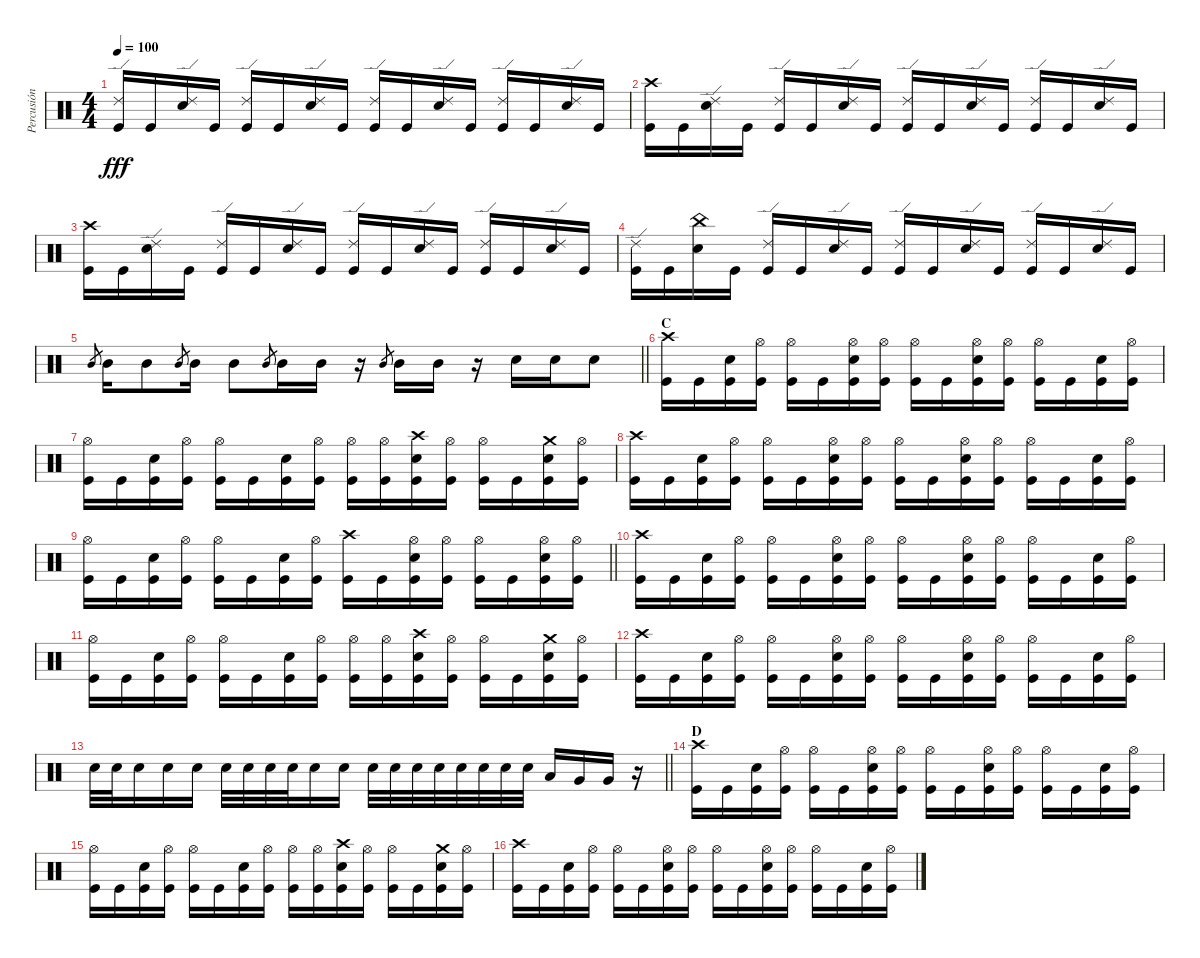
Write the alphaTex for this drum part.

\track ("Percusión" "Percusión") {instrument percussion}
\staff {score}
\articulation defaults
\ts (4 4)
\tempo 100
\clef neutral
\ks c
("Ride (edge) 2" "Kick (hit)").16{dy fff} "Kick (hit)".16 ("Ride (edge) 2" "Electric Snare (hit)").16 "Kick (hit)".16 ("Ride (edge) 2" "Kick (hit)").16 "Kick (hit)".16 ("Ride (edge) 2" "Electric Snare (hit)").16 "Kick (hit)".16 ("Ride (edge) 2" "Kick (hit)").16 "Kick (hit)".16 ("Ride (edge) 2" "Electric Snare (hit)").16 "Kick (hit)".16 ("Ride (edge) 2" "Kick (hit)").16 "Kick (hit)".16 ("Ride (edge) 2" "Electric Snare (hit)").16 "Kick (hit)".16 |
("Crash high (hit)" "Kick (hit)").16 "Kick (hit)".16 ("Ride (edge) 2" "Electric Snare (hit)").16 "Kick (hit)".16 ("Ride (edge) 2" "Kick (hit)").16 "Kick (hit)".16 ("Ride (edge) 2" "Electric Snare (hit)").16 "Kick (hit)".16 ("Ride (edge) 2" "Kick (hit)").16 "Kick (hit)".16 ("Ride (edge) 2" "Electric Snare (hit)").16 "Kick (hit)".16 ("Ride (edge) 2" "Kick (hit)").16 "Kick (hit)".16 ("Ride (edge) 2" "Electric Snare (hit)").16 "Kick (hit)".16 |
("Crash high (hit)" "Kick (hit)").16 "Kick (hit)".16 ("Ride (edge) 2" "Electric Snare (hit)").16 "Kick (hit)".16 ("Ride (edge) 2" "Kick (hit)").16 "Kick (hit)".16 ("Ride (edge) 2" "Electric Snare (hit)").16 "Kick (hit)".16 ("Ride (edge) 2" "Kick (hit)").16 "Kick (hit)".16 ("Ride (edge) 2" "Electric Snare (hit)").16 "Kick (hit)".16 ("Ride (edge) 2" "Kick (hit)").16 "Kick (hit)".16 ("Ride (edge) 2" "Electric Snare (hit)").16 "Kick (hit)".16 |
("Ride (edge) 2" "Kick (hit)").16 "Kick (hit)".16 ("China (hit)" "Electric Snare (hit)").16 "Kick (hit)".16 ("Ride (edge) 2" "Kick (hit)").16 "Kick (hit)".16 ("Ride (edge) 2" "Electric Snare (hit)").16 "Kick (hit)".16 ("Ride (edge) 2" "Kick (hit)").16 "Kick (hit)".16 ("Ride (edge) 2" "Electric Snare (hit)").16 "Kick (hit)".16 ("Ride (edge) 2" "Kick (hit)").16 "Kick (hit)".16 ("Ride (edge) 2" "Electric Snare (hit)").16 "Kick (hit)".16 |
\barLineRight lightlight "Mid Tom (hit)".8{gr} "Mid Tom (hit)".16 "Mid Tom (hit)".8 "Mid Tom (hit)".8{gr} "Mid Tom (hit)".16 "Mid Tom (hit)".8 "Mid Tom (hit)".8{gr} "Mid Tom (hit)".16 "Mid Tom (hit)".16
r.16 "Mid Tom (hit)".8{gr} "Mid Tom (hit)".16 "Mid Tom (hit)".16 r.16 "Electric Snare (hit)".16 "Electric Snare (hit)".16 "Electric Snare (hit)".8 |
\section ("" "C")
("Crash high (hit)" "Kick (hit)").16 "Kick (hit)".16 ("Electric Snare (hit)" "Kick (hit)").16 ("Hi-Hat (open)" "Kick (hit)").16 ("Hi-Hat (open)" "Kick (hit)").16 "Kick (hit)".16 ("Hi-Hat (open)" "Electric Snare (hit)" "Kick (hit)").16 ("Hi-Hat (open)" "Kick (hit)").16 ("Hi-Hat (open)" "Kick (hit)").16 "Kick (hit)".16 ("Hi-Hat (open)" "Electric Snare (hit)" "Kick (hit)").16 ("Hi-Hat (open)" "Kick (hit)").16 ("Hi-Hat (open)" "Kick (hit)").16 "Kick (hit)".16 ("Electric Snare (hit)" "Kick (hit)").16 ("Hi-Hat (open)" "Kick (hit)").16 |
("Hi-Hat (open)" "Kick (hit)").16 "Kick (hit)".16 ("Electric Snare (hit)" "Kick (hit)").16 ("Hi-Hat (open)" "Kick (hit)").16 ("Hi-Hat (open)" "Kick (hit)").16 "Kick (hit)".16 ("Electric Snare (hit)" "Kick (hit)").16 ("Hi-Hat (open)" "Kick (hit)").16 ("Hi-Hat (open)" "Kick (hit)").16 ("Hi-Hat (open)" "Kick (hit)").16 ("Crash high (hit)" "Electric Snare (hit)" "Kick (hit)").16 ("Hi-Hat (open)" "Kick (hit)").16 ("Hi-Hat (open)" "Kick (hit)").16 "Kick (hit)".16 ("Crash medium (hit)" "Electric Snare (hit)" "Kick (hit)").16 ("Hi-Hat (open)" "Kick (hit)").16 |
("Crash high (hit)" "Kick (hit)").16 "Kick (hit)".16 ("Electric Snare (hit)" "Kick (hit)").16 ("Hi-Hat (open)" "Kick (hit)").16 ("Hi-Hat (open)" "Kick (hit)").16 "Kick (hit)".16 ("Hi-Hat (open)" "Electric Snare (hit)" "Kick (hit)").16 ("Hi-Hat (open)" "Kick (hit)").16 ("Hi-Hat (open)" "Kick (hit)").16 "Kick (hit)".16 ("Hi-Hat (open)" "Electric Snare (hit)" "Kick (hit)").16 ("Hi-Hat (open)" "Kick (hit)").16 ("Hi-Hat (open)" "Kick (hit)").16 "Kick (hit)".16 ("Electric Snare (hit)" "Kick (hit)").16 ("Hi-Hat (open)" "Kick (hit)").16 |
\barLineRight lightlight
("Hi-Hat (open)" "Kick (hit)").16 "Kick (hit)".16 ("Electric Snare (hit)" "Kick (hit)").16 ("Hi-Hat (open)" "Kick (hit)").16 ("Hi-Hat (open)" "Kick (hit)").16 "Kick (hit)".16 ("Electric Snare (hit)" "Kick (hit)").16 ("Hi-Hat (open)" "Kick (hit)").16 ("Crash high (hit)" "Kick (hit)").16 "Kick (hit)".16 ("Hi-Hat (open)" "Electric Snare (hit)" "Kick (hit)").16 ("Hi-Hat (open)" "Kick (hit)").16 ("Hi-Hat (open)" "Kick (hit)").16 "Kick (hit)".16 ("Hi-Hat (open)" "Electric Snare (hit)" "Kick (hit)").16 ("Hi-Hat (open)" "Kick (hit)").16 |
("Crash high (hit)" "Kick (hit)").16 "Kick (hit)".16 ("Electric Snare (hit)" "Kick (hit)").16 ("Hi-Hat (open)" "Kick (hit)").16 ("Hi-Hat (open)" "Kick (hit)").16 "Kick (hit)".16 ("Hi-Hat (open)" "Electric Snare (hit)" "Kick (hit)").16 ("Hi-Hat (open)" "Kick (hit)").16 ("Hi-Hat (open)" "Kick (hit)").16 "Kick (hit)".16 ("Hi-Hat (open)" "Electric Snare (hit)" "Kick (hit)").16 ("Hi-Hat (open)" "Kick (hit)").16 ("Hi-Hat (open)" "Kick (hit)").16 "Kick (hit)".16 ("Electric Snare (hit)" "Kick (hit)").16 ("Hi-Hat (open)" "Kick (hit)").16 |
("Hi-Hat (open)" "Kick (hit)").16 "Kick (hit)".16 ("Electric Snare (hit)" "Kick (hit)").16 ("Hi-Hat (open)" "Kick (hit)").16 ("Hi-Hat (open)" "Kick (hit)").16 "Kick (hit)".16 ("Electric Snare (hit)" "Kick (hit)").16 ("Hi-Hat (open)" "Kick (hit)").16 ("Hi-Hat (open)" "Kick (hit)").16 ("Hi-Hat (open)" "Kick (hit)").16 ("Crash high (hit)" "Electric Snare (hit)" "Kick (hit)").16 ("Hi-Hat (open)" "Kick (hit)").16 ("Hi-Hat (open)" "Kick (hit)").16 "Kick (hit)".16 ("Crash medium (hit)" "Electric Snare (hit)" "Kick (hit)").16 ("Hi-Hat (open)" "Kick (hit)").16 |
("Crash high (hit)" "Kick (hit)").16 "Kick (hit)".16 ("Electric Snare (hit)" "Kick (hit)").16 ("Hi-Hat (open)" "Kick (hit)").16 ("Hi-Hat (open)" "Kick (hit)").16 "Kick (hit)".16 ("Hi-Hat (open)" "Electric Snare (hit)" "Kick (hit)").16 ("Hi-Hat (open)" "Kick (hit)").16 ("Hi-Hat (open)" "Kick (hit)").16 "Kick (hit)".16 ("Hi-Hat (open)" "Electric Snare (hit)" "Kick (hit)").16 ("Hi-Hat (open)" "Kick (hit)").16 ("Hi-Hat (open)" "Kick (hit)").16 "Kick (hit)".16 ("Electric Snare (hit)" "Kick (hit)").16 ("Hi-Hat (open)" "Kick (hit)").16 |
\barLineRight lightlight "Electric Snare (hit)".32 "Electric Snare (hit)".32 "Electric Snare (hit)".16 "Electric Snare (hit)".16 "Electric Snare (hit)".16 "Electric Snare (hit)".32 "Electric Snare (hit)".32 "Electric Snare (hit)".32 "Electric Snare (hit)".32 "Electric Snare (hit)".16 "Electric Snare (hit)".16 "Electric Snare (hit)".32 "Electric Snare (hit)".32 "Electric Snare (hit)".32 "Electric Snare (hit)".32 "Electric Snare (hit)".32 "Electric Snare (hit)".32 "Electric Snare (hit)".32 "Electric Snare (hit)".32 "Low Tom (hit)".16 "Very Low Tom (hit)".16 "Very Low Tom (hit)".16
r.16 |
\section ("" "D")
("Crash high (hit)" "Kick (hit)").16 "Kick (hit)".16 ("Electric Snare (hit)" "Kick (hit)").16 ("Hi-Hat (open)" "Kick (hit)").16 ("Hi-Hat (open)" "Kick (hit)").16 "Kick (hit)".16 ("Hi-Hat (open)" "Electric Snare (hit)" "Kick (hit)").16 ("Hi-Hat (open)" "Kick (hit)").16 ("Hi-Hat (open)" "Kick (hit)").16 "Kick (hit)".16 ("Hi-Hat (open)" "Electric Snare (hit)" "Kick (hit)").16 ("Hi-Hat (open)" "Kick (hit)").16 ("Hi-Hat (open)" "Kick (hit)").16 "Kick (hit)".16 ("Electric Snare (hit)" "Kick (hit)").16 ("Hi-Hat (open)" "Kick (hit)").16 |
("Hi-Hat (open)" "Kick (hit)").16 "Kick (hit)".16 ("Electric Snare (hit)" "Kick (hit)").16 ("Hi-Hat (open)" "Kick (hit)").16 ("Hi-Hat (open)" "Kick (hit)").16 "Kick (hit)".16 ("Electric Snare (hit)" "Kick (hit)").16 ("Hi-Hat (open)" "Kick (hit)").16 ("Hi-Hat (open)" "Kick (hit)").16 ("Hi-Hat (open)" "Kick (hit)").16 ("Crash high (hit)" "Electric Snare (hit)" "Kick (hit)").16 ("Hi-Hat (open)" "Kick (hit)").16 ("Hi-Hat (open)" "Kick (hit)").16 "Kick (hit)".16 ("Crash medium (hit)" "Electric Snare (hit)" "Kick (hit)").16 ("Hi-Hat (open)" "Kick (hit)").16 |
("Crash high (hit)" "Kick (hit)").16 "Kick (hit)".16 ("Electric Snare (hit)" "Kick (hit)").16 ("Hi-Hat (open)" "Kick (hit)").16 ("Hi-Hat (open)" "Kick (hit)").16 "Kick (hit)".16 ("Hi-Hat (open)" "Electric Snare (hit)" "Kick (hit)").16 ("Hi-Hat (open)" "Kick (hit)").16 ("Hi-Hat (open)" "Kick (hit)").16 "Kick (hit)".16 ("Hi-Hat (open)" "Electric Snare (hit)" "Kick (hit)").16 ("Hi-Hat (open)" "Kick (hit)").16 ("Hi-Hat (open)" "Kick (hit)").16 "Kick (hit)".16 ("Electric Snare (hit)" "Kick (hit)").16 ("Hi-Hat (open)" "Kick (hit)").16
